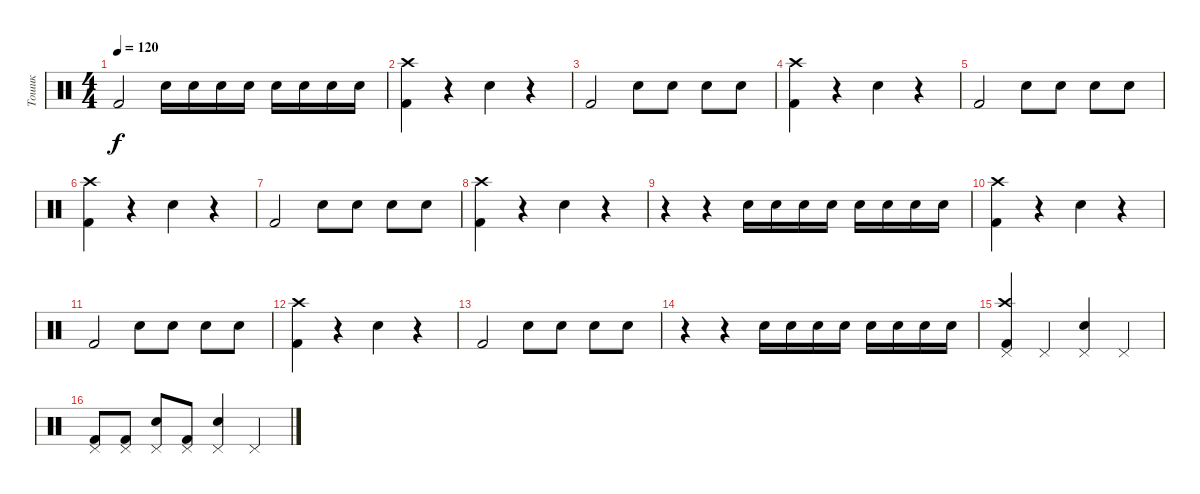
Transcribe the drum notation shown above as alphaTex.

\track ("Тошик" "Тошик") {instrument percussion}
\staff {score}
\articulation defaults
\ts (4 4)
\tempo 120
\clef neutral
\ks c "Kick (hit) 2".2{dy f} "Snare (hit) 2".16 "Snare (hit) 2".16 "Electric Snare (hit)".16 "Snare (hit) 2".16 "Electric Snare (hit)".16 "Snare (hit) 2".16 "Snare (hit) 2".16 "Snare (hit) 2".16
|
("Kick (hit) 2" "Crash high (hit)").4 r.4 "Snare (hit) 2".4 r.4 |
"Kick (hit) 2".2 "Snare (hit) 2".8 "Snare (hit) 2".8 "Snare (hit) 2".8 "Snare (hit) 2".8 |
("Kick (hit) 2" "Crash high (hit)").4 r.4 "Snare (hit) 2".4 r.4 |
"Kick (hit) 2".2 "Snare (hit) 2".8 "Snare (hit) 2".8 "Snare (hit) 2".8 "Snare (hit) 2".8 |
("Kick (hit) 2" "Crash high (hit)").4 r.4 "Snare (hit) 2".4 r.4 |
"Kick (hit) 2".2 "Snare (hit) 2".8 "Snare (hit) 2".8 "Snare (hit) 2".8 "Snare (hit) 2".8 |
("Kick (hit) 2" "Crash high (hit)").4 r.4 "Snare (hit) 2".4 r.4 |
r.4 r.4 "Snare (hit) 2".16 "Snare (hit) 2".16 "Electric Snare (hit)".16 "Snare (hit) 2".16 "Electric Snare (hit)".16 "Snare (hit) 2".16 "Snare (hit) 2".16 "Snare (hit) 2".16 |
("Kick (hit) 2" "Crash high (hit)").4 r.4 "Snare (hit) 2".4 r.4 |
"Kick (hit) 2".2 "Snare (hit) 2".8 "Snare (hit) 2".8 "Snare (hit) 2".8 "Snare (hit) 2".8 |
("Kick (hit) 2" "Crash high (hit)").4 r.4 "Snare (hit) 2".4 r.4 |
"Kick (hit) 2".2 "Snare (hit) 2".8 "Snare (hit) 2".8 "Snare (hit) 2".8 "Snare (hit) 2".8 |
r.4 r.4 "Snare (hit) 2".16 "Snare (hit) 2".16 "Electric Snare (hit)".16 "Snare (hit) 2".16 "Electric Snare (hit)".16 "Snare (hit) 2".16 "Snare (hit) 2".16 "Snare (hit) 2".16 |
("Crash high (hit)" "Kick (hit) 2" "Pedal Hi-Hat (hit)").4 "Pedal Hi-Hat (hit)".4 ("Electric Snare (hit)" "Pedal Hi-Hat (hit)").4 "Pedal Hi-Hat (hit)".4 |
("Kick (hit) 2" "Pedal Hi-Hat (hit)").8 ("Kick (hit) 2" "Pedal Hi-Hat (hit)").8 ("Snare (hit) 2" "Pedal Hi-Hat (hit)").8 ("Kick (hit) 2" "Pedal Hi-Hat (hit)").8 ("Electric Snare (hit)" "Pedal Hi-Hat (hit)").4 "Pedal Hi-Hat (hit)".4
